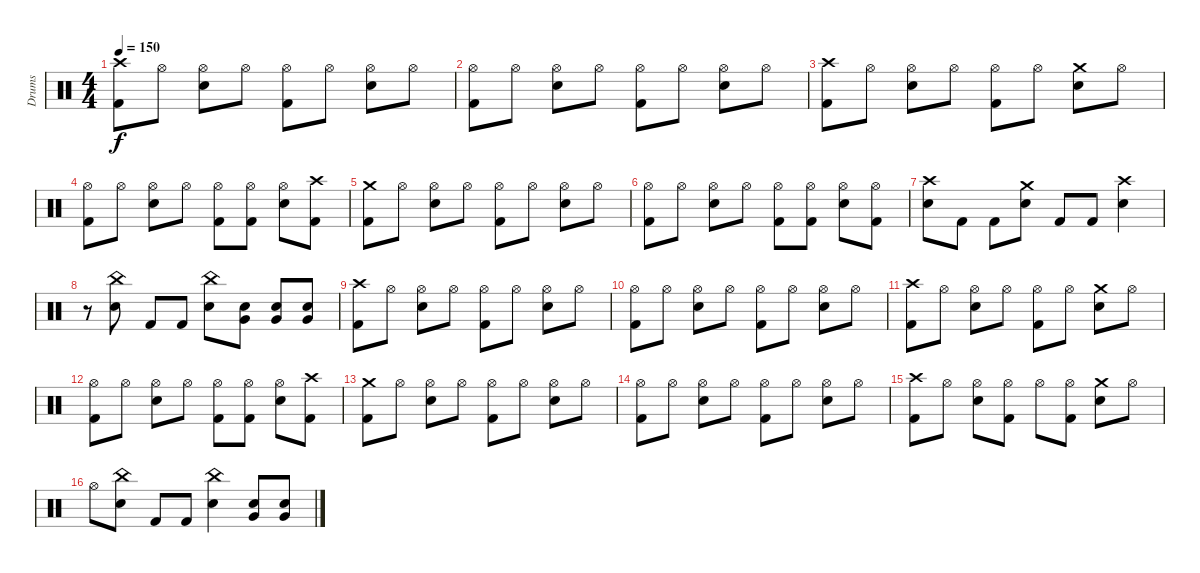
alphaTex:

\track ("Drums" "Drums") {instrument percussion}
\staff {score}
\articulation defaults
\ts (4 4)
\tempo 150
\clef neutral
\ks c
("Crash high (hit)" "Kick (hit) 2").8{dy f} "Hi-Hat (open)".8 ("Hi-Hat (open)" "Electric Snare (hit)").8 "Hi-Hat (open)".8 ("Hi-Hat (open)" "Kick (hit) 2").8 "Hi-Hat (open)".8 ("Hi-Hat (open)" "Electric Snare (hit)").8 "Hi-Hat (open)".8 |
("Hi-Hat (open)" "Kick (hit) 2").8 "Hi-Hat (open)".8 ("Hi-Hat (open)" "Electric Snare (hit)").8 "Hi-Hat (open)".8 ("Hi-Hat (open)" "Kick (hit) 2").8 "Hi-Hat (open)".8 ("Hi-Hat (open)" "Electric Snare (hit)").8 "Hi-Hat (open)".8 |
("Crash high (hit)" "Kick (hit) 2").8 "Hi-Hat (open)".8 ("Hi-Hat (open)" "Electric Snare (hit)").8 "Hi-Hat (open)".8 ("Hi-Hat (open)" "Kick (hit) 2").8 "Hi-Hat (open)".8 ("Crash medium (hit)" "Electric Snare (hit)").8 "Hi-Hat (open)".8 |
("Hi-Hat (open)" "Kick (hit) 2").8 "Hi-Hat (open)".8 ("Hi-Hat (open)" "Electric Snare (hit)").8 "Hi-Hat (open)".8 ("Hi-Hat (open)" "Kick (hit) 2").8 ("Hi-Hat (open)" "Kick (hit) 2").8 ("Hi-Hat (open)" "Electric Snare (hit)").8 ("Crash high (hit)" "Kick (hit) 2").8 |
("Crash medium (hit)" "Kick (hit) 2").8 "Hi-Hat (open)".8 ("Hi-Hat (open)" "Electric Snare (hit)").8 "Hi-Hat (open)".8 ("Hi-Hat (open)" "Kick (hit) 2").8 "Hi-Hat (open)".8 ("Hi-Hat (open)" "Electric Snare (hit)").8 "Hi-Hat (open)".8 |
("Hi-Hat (open)" "Kick (hit) 2").8 "Hi-Hat (open)".8 ("Hi-Hat (open)" "Electric Snare (hit)").8 "Hi-Hat (open)".8 ("Hi-Hat (open)" "Kick (hit) 2").8 ("Hi-Hat (open)" "Kick (hit) 2").8 ("Hi-Hat (open)" "Electric Snare (hit)").8 ("Hi-Hat (open)" "Kick (hit) 2").8 |
("Crash high (hit)" "Electric Snare (hit)").8 "Kick (hit) 2".8 "Kick (hit) 2".8 ("Crash medium (hit)" "Electric Snare (hit)").8 "Kick (hit) 2".8 "Kick (hit) 2".8 ("Crash high (hit)" "Electric Snare (hit)").4 |
r.8 ("China (hit)" "Electric Snare (hit)").8 "Kick (hit) 2".8 "Kick (hit) 2".8 ("China (hit)" "Electric Snare (hit)").8 ("Very Low Tom (hit)" "Electric Snare (hit)").8 ("Very Low Tom (hit)" "Electric Snare (hit)").8 ("Very Low Tom (hit)" "Electric Snare (hit)").8 |
("Crash high (hit)" "Kick (hit) 2").8 "Hi-Hat (open)".8 ("Hi-Hat (open)" "Electric Snare (hit)").8 "Hi-Hat (open)".8 ("Hi-Hat (open)" "Kick (hit) 2").8 "Hi-Hat (open)".8 ("Hi-Hat (open)" "Electric Snare (hit)").8 "Hi-Hat (open)".8 |
("Hi-Hat (open)" "Kick (hit) 2").8 "Hi-Hat (open)".8 ("Hi-Hat (open)" "Electric Snare (hit)").8 "Hi-Hat (open)".8 ("Hi-Hat (open)" "Kick (hit) 2").8 "Hi-Hat (open)".8 ("Hi-Hat (open)" "Electric Snare (hit)").8 "Hi-Hat (open)".8 |
("Crash high (hit)" "Kick (hit) 2").8 "Hi-Hat (open)".8 ("Hi-Hat (open)" "Electric Snare (hit)").8 "Hi-Hat (open)".8 ("Hi-Hat (open)" "Kick (hit) 2").8 "Hi-Hat (open)".8 ("Crash medium (hit)" "Electric Snare (hit)").8 "Hi-Hat (open)".8 |
("Hi-Hat (open)" "Kick (hit) 2").8 "Hi-Hat (open)".8 ("Hi-Hat (open)" "Electric Snare (hit)").8 "Hi-Hat (open)".8 ("Hi-Hat (open)" "Kick (hit) 2").8 ("Hi-Hat (open)" "Kick (hit) 2").8 ("Hi-Hat (open)" "Electric Snare (hit)").8 ("Crash high (hit)" "Kick (hit) 2").8 |
("Crash medium (hit)" "Kick (hit) 2").8 "Hi-Hat (open)".8 ("Hi-Hat (open)" "Electric Snare (hit)").8 "Hi-Hat (open)".8 ("Hi-Hat (open)" "Kick (hit) 2").8 "Hi-Hat (open)".8 ("Hi-Hat (open)" "Electric Snare (hit)").8 "Hi-Hat (open)".8 |
("Hi-Hat (open)" "Kick (hit) 2").8 "Hi-Hat (open)".8 ("Hi-Hat (open)" "Electric Snare (hit)").8 "Hi-Hat (open)".8 ("Hi-Hat (open)" "Kick (hit) 2").8 "Hi-Hat (open)".8 ("Hi-Hat (open)" "Electric Snare (hit)").8 "Hi-Hat (open)".8 |
("Crash high (hit)" "Kick (hit) 2").8 "Hi-Hat (open)".8 ("Hi-Hat (open)" "Electric Snare (hit)").8 ("Hi-Hat (open)" "Kick (hit) 2").8 "Hi-Hat (open)".8 ("Hi-Hat (open)" "Kick (hit) 2").8 ("Crash medium (hit)" "Electric Snare (hit)").8 "Hi-Hat (open)".8 |
"Hi-Hat (open)".8 ("China (hit)" "Electric Snare (hit)").8 "Kick (hit) 2".8 "Kick (hit) 2".8 ("China (hit)" "Electric Snare (hit)").4 ("Very Low Tom (hit)" "Electric Snare (hit)").8 ("Very Low Tom (hit)" "Electric Snare (hit)").8
